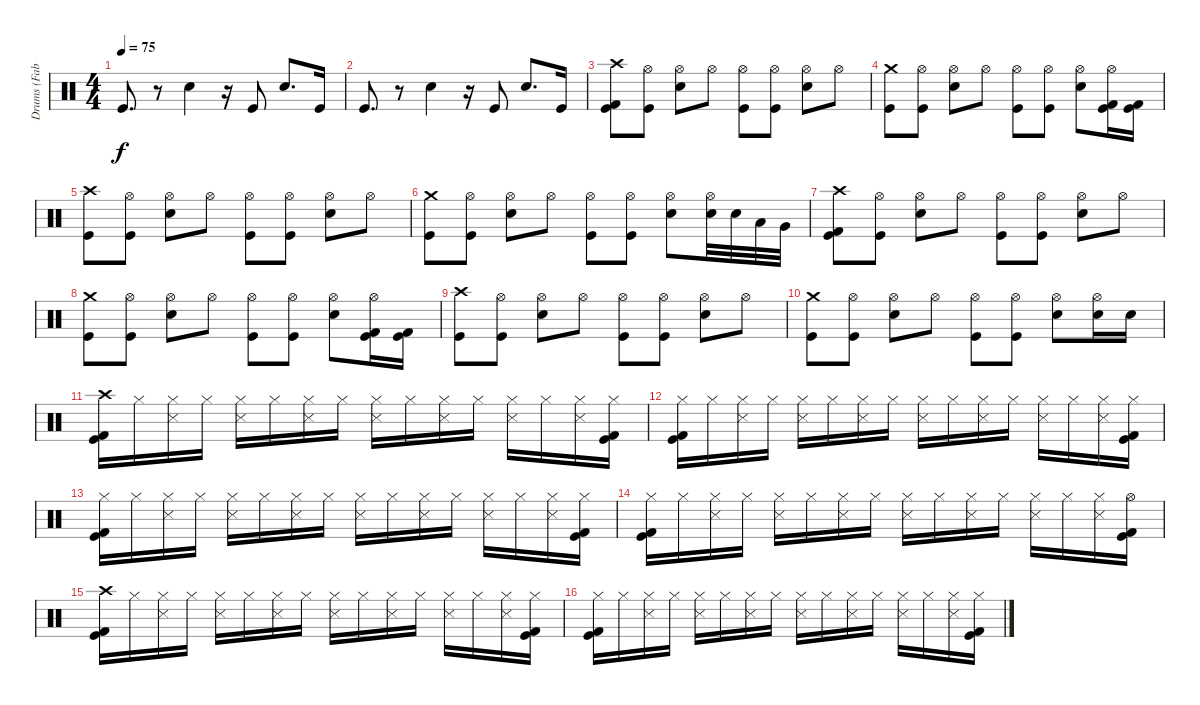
\track ("Drums (Fabien)" "Drums (Fab") {instrument percussion}
\staff {score}
\articulation defaults
\ts (4 4)
\tempo 75
\clef neutral
\ks c "Kick (hit)".8{d dy f}
r.8 "Electric Snare (hit)".4 r.16 "Kick (hit)".8 "Electric Snare (hit)".8{d} "Kick (hit)".16 |
"Kick (hit)".8{d} r.8 "Electric Snare (hit)".4 r.16 "Kick (hit)".8 "Electric Snare (hit)".8{d} "Kick (hit)".16 |
("Crash high (hit)" "Kick (hit) 2" "Kick (hit)").8 ("Hi-Hat (open)" "Kick (hit)").8 ("Hi-Hat (open)" "Snare (hit) 2").8 "Hi-Hat (open)".8 ("Hi-Hat (open)" "Kick (hit)").8 ("Hi-Hat (open)" "Kick (hit)").8 ("Hi-Hat (open)" "Snare (hit) 2").8 "Hi-Hat (open)".8 |
("Crash medium (hit)" "Kick (hit)").8 ("Hi-Hat (open)" "Kick (hit)").8 ("Hi-Hat (open)" "Snare (hit) 2").8 "Hi-Hat (open)".8 ("Hi-Hat (open)" "Kick (hit)").8 ("Hi-Hat (open)" "Kick (hit)").8 ("Hi-Hat (open)" "Snare (hit) 2").8 ("Hi-Hat (open)" "Kick (hit) 2" "Kick (hit)").16 ("Kick (hit) 2" "Kick (hit)").16 |
("Crash high (hit)" "Kick (hit)").8 ("Hi-Hat (open)" "Kick (hit)").8 ("Hi-Hat (open)" "Snare (hit) 2").8 "Hi-Hat (open)".8 ("Hi-Hat (open)" "Kick (hit)").8 ("Hi-Hat (open)" "Kick (hit)").8 ("Hi-Hat (open)" "Snare (hit) 2").8 "Hi-Hat (open)".8 |
("Crash medium (hit)" "Kick (hit)").8 ("Hi-Hat (open)" "Kick (hit)").8 ("Hi-Hat (open)" "Snare (hit) 2").8 "Hi-Hat (open)".8 ("Hi-Hat (open)" "Kick (hit)").8 ("Hi-Hat (open)" "Kick (hit)").8 ("Hi-Hat (open)" "Snare (hit) 2").8 ("Hi-Hat (open)" "Snare (hit) 2").32 "Snare (hit) 2".32 "Low Tom (hit)".32 "Very Low Tom (hit)".32 |
("Crash high (hit)" "Kick (hit) 2" "Kick (hit)").8 ("Hi-Hat (open)" "Kick (hit)").8 ("Hi-Hat (open)" "Snare (hit) 2").8 "Hi-Hat (open)".8 ("Hi-Hat (open)" "Kick (hit)").8 ("Hi-Hat (open)" "Kick (hit)").8 ("Hi-Hat (open)" "Snare (hit) 2").8 "Hi-Hat (open)".8 |
("Crash medium (hit)" "Kick (hit)").8 ("Hi-Hat (open)" "Kick (hit)").8 ("Hi-Hat (open)" "Snare (hit) 2").8 "Hi-Hat (open)".8 ("Hi-Hat (open)" "Kick (hit)").8 ("Hi-Hat (open)" "Kick (hit)").8 ("Hi-Hat (open)" "Snare (hit) 2").8 ("Hi-Hat (open)" "Kick (hit) 2" "Kick (hit)").16 ("Kick (hit) 2" "Kick (hit)").16 |
("Crash high (hit)" "Kick (hit)").8 ("Hi-Hat (open)" "Kick (hit)").8 ("Hi-Hat (open)" "Snare (hit) 2").8 "Hi-Hat (open)".8 ("Hi-Hat (open)" "Kick (hit)").8 ("Hi-Hat (open)" "Kick (hit)").8 ("Hi-Hat (open)" "Snare (hit) 2").8 "Hi-Hat (open)".8 |
("Crash medium (hit)" "Kick (hit)").8 ("Hi-Hat (open)" "Kick (hit)").8 ("Hi-Hat (open)" "Snare (hit) 2").8 "Hi-Hat (open)".8 ("Hi-Hat (open)" "Kick (hit)").8 ("Hi-Hat (open)" "Kick (hit)").8 ("Hi-Hat (open)" "Snare (hit) 2").8 ("Hi-Hat (open)" "Snare (hit) 2").16 "Snare (hit) 2".16 |
("Crash high (hit)" "Kick (hit) 2" "Kick (hit)").16 "Hi-Hat (closed)".16 ("Hi-Hat (closed)" "Snare (side stick) 3").16 "Hi-Hat (closed)".16 ("Hi-Hat (closed)" "Snare (side stick) 3").16 "Hi-Hat (closed)".16 ("Hi-Hat (closed)" "Snare (side stick) 3").16 "Hi-Hat (closed)".16 ("Hi-Hat (closed)" "Snare (side stick) 3").16 "Hi-Hat (closed)".16 ("Hi-Hat (closed)" "Snare (side stick) 3").16 "Hi-Hat (closed)".16 ("Hi-Hat (closed)" "Snare (side stick) 3").16 "Hi-Hat (closed)".16 ("Hi-Hat (closed)" "Snare (side stick) 3").16 ("Hi-Hat (closed)" "Kick (hit) 2" "Kick (hit)").16 |
("Hi-Hat (closed)" "Kick (hit) 2" "Kick (hit)").16 "Hi-Hat (closed)".16 ("Hi-Hat (closed)" "Snare (side stick) 3").16 "Hi-Hat (closed)".16 ("Hi-Hat (closed)" "Snare (side stick) 3").16 "Hi-Hat (closed)".16 ("Hi-Hat (closed)" "Snare (side stick) 3").16 "Hi-Hat (closed)".16 ("Hi-Hat (closed)" "Snare (side stick) 3").16 "Hi-Hat (closed)".16 ("Hi-Hat (closed)" "Snare (side stick) 3").16 "Hi-Hat (closed)".16 ("Hi-Hat (closed)" "Snare (side stick) 3").16 "Hi-Hat (closed)".16 ("Hi-Hat (closed)" "Snare (side stick) 3").16 ("Hi-Hat (closed)" "Kick (hit) 2" "Kick (hit)").16 |
("Hi-Hat (closed)" "Kick (hit) 2" "Kick (hit)").16 "Hi-Hat (closed)".16 ("Hi-Hat (closed)" "Snare (side stick) 3").16 "Hi-Hat (closed)".16 ("Hi-Hat (closed)" "Snare (side stick) 3").16 "Hi-Hat (closed)".16 ("Hi-Hat (closed)" "Snare (side stick) 3").16 "Hi-Hat (closed)".16 ("Hi-Hat (closed)" "Snare (side stick) 3").16 "Hi-Hat (closed)".16 ("Hi-Hat (closed)" "Snare (side stick) 3").16 "Hi-Hat (closed)".16 ("Hi-Hat (closed)" "Snare (side stick) 3").16 "Hi-Hat (closed)".16 ("Hi-Hat (closed)" "Snare (side stick) 3").16 ("Hi-Hat (closed)" "Kick (hit) 2" "Kick (hit)").16 |
("Hi-Hat (closed)" "Kick (hit) 2" "Kick (hit)").16 "Hi-Hat (closed)".16 ("Hi-Hat (closed)" "Snare (side stick) 3").16 "Hi-Hat (closed)".16 ("Hi-Hat (closed)" "Snare (side stick) 3").16 "Hi-Hat (closed)".16 ("Hi-Hat (closed)" "Snare (side stick) 3").16 "Hi-Hat (closed)".16 ("Hi-Hat (closed)" "Snare (side stick) 3").16 "Hi-Hat (closed)".16 ("Hi-Hat (closed)" "Snare (side stick) 3").16 "Hi-Hat (closed)".16 ("Hi-Hat (closed)" "Snare (side stick) 3").16 "Hi-Hat (closed)".16 ("Hi-Hat (closed)" "Snare (side stick) 3").16 ("Hi-Hat (open)" "Kick (hit) 2" "Kick (hit)").16 |
("Crash high (hit)" "Kick (hit) 2" "Kick (hit)").16 "Hi-Hat (closed)".16 ("Hi-Hat (closed)" "Snare (side stick) 3").16 "Hi-Hat (closed)".16 ("Hi-Hat (closed)" "Snare (side stick) 3").16 "Hi-Hat (closed)".16 ("Hi-Hat (closed)" "Snare (side stick) 3").16 "Hi-Hat (closed)".16 ("Hi-Hat (closed)" "Snare (side stick) 3").16 "Hi-Hat (closed)".16 ("Hi-Hat (closed)" "Snare (side stick) 3").16 "Hi-Hat (closed)".16 ("Hi-Hat (closed)" "Snare (side stick) 3").16 "Hi-Hat (closed)".16 ("Hi-Hat (closed)" "Snare (side stick) 3").16 ("Hi-Hat (closed)" "Kick (hit) 2" "Kick (hit)").16 |
("Hi-Hat (closed)" "Kick (hit) 2" "Kick (hit)").16 "Hi-Hat (closed)".16 ("Hi-Hat (closed)" "Snare (side stick) 3").16 "Hi-Hat (closed)".16 ("Hi-Hat (closed)" "Snare (side stick) 3").16 "Hi-Hat (closed)".16 ("Hi-Hat (closed)" "Snare (side stick) 3").16 "Hi-Hat (closed)".16 ("Hi-Hat (closed)" "Snare (side stick) 3").16 "Hi-Hat (closed)".16 ("Hi-Hat (closed)" "Snare (side stick) 3").16 "Hi-Hat (closed)".16 ("Hi-Hat (closed)" "Snare (side stick) 3").16 "Hi-Hat (closed)".16 ("Hi-Hat (closed)" "Snare (side stick) 3").16 ("Hi-Hat (closed)" "Kick (hit) 2" "Kick (hit)").16
